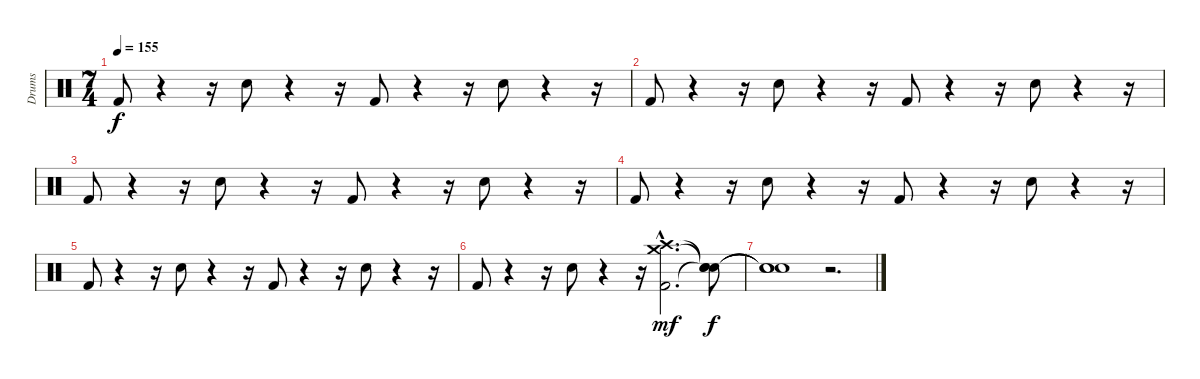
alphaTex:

\track ("Drums" "Drums") {instrument percussion}
\staff {score}
\articulation defaults
\ts (7 4)
\tempo 155
\clef neutral
\ks c "Kick (hit) 2".8{dy f}
r.4 r.16 "Electric Snare (hit)".8 r.4 r.16 "Kick (hit) 2".8 r.4 r.16 "Electric Snare (hit)".8 r.4 r.16 |
"Kick (hit) 2".8 r.4 r.16 "Electric Snare (hit)".8 r.4 r.16 "Kick (hit) 2".8 r.4 r.16 "Electric Snare (hit)".8 r.4 r.16 |
"Kick (hit) 2".8 r.4 r.16 "Electric Snare (hit)".8 r.4 r.16 "Kick (hit) 2".8 r.4 r.16 "Electric Snare (hit)".8 r.4 r.16 |
"Kick (hit) 2".8 r.4 r.16 "Electric Snare (hit)".8 r.4 r.16 "Kick (hit) 2".8 r.4 r.16 "Electric Snare (hit)".8 r.4 r.16 |
"Kick (hit) 2".8 r.4 r.16 "Electric Snare (hit)".8 r.4 r.16 "Kick (hit) 2".8 r.4 r.16 "Electric Snare (hit)".8 r.4 r.16 |
"Kick (hit) 2".8 r.4 r.16 "Electric Snare (hit)".8 r.4 r.16 ("Crash medium (hit)"{hac} "Crash high (hit)"{hac} "Kick (hit) 2"{hac}).2{d dy mf} ("Snare (hit)"{t} "Snare (hit)"{t} "Snare (hit)"{t}).8{dy f} |
("Snare (hit)"{t} "Snare (hit)"{t} "Snare (hit)"{t}).1 r.2{d}
